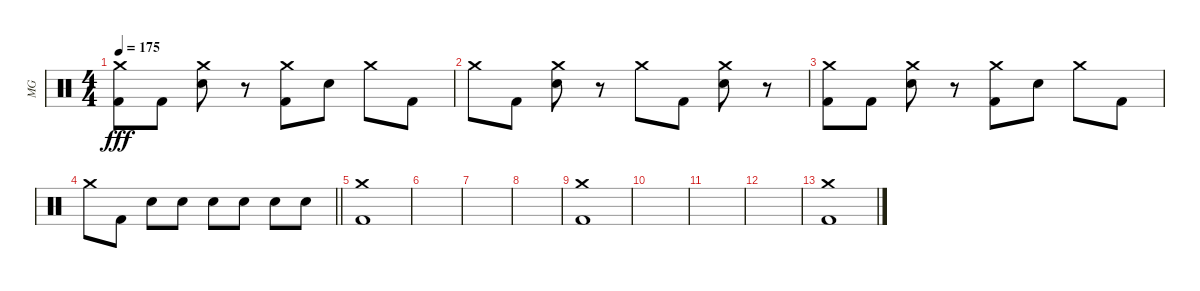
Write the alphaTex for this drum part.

\track ("MG" "MG") {instrument percussion}
\staff {score}
\articulation defaults
\ts (4 4)
\tempo 175
\clef neutral
\ks c
("Crash medium (hit)" "Kick (hit) 2").8{dy fff} "Kick (hit) 2".8 ("Crash medium (hit)" "Electric Snare (hit)").8 r.8 ("Crash medium (hit)" "Kick (hit) 2").8 "Electric Snare (hit)".8 "Crash medium (hit)".8 "Kick (hit) 2".8 |
"Crash medium (hit)".8 "Kick (hit) 2".8 ("Crash medium (hit)" "Electric Snare (hit)").8 r.8 "Crash medium (hit)".8 "Kick (hit) 2".8 ("Crash medium (hit)" "Electric Snare (hit)").8 r.8 |
("Crash medium (hit)" "Kick (hit) 2").8 "Kick (hit) 2".8 ("Crash medium (hit)" "Electric Snare (hit)").8 r.8 ("Crash medium (hit)" "Kick (hit) 2").8 "Electric Snare (hit)".8 "Crash medium (hit)".8 "Kick (hit) 2".8 |
\barLineRight lightlight "Crash medium (hit)".8 "Kick (hit) 2".8 "Electric Snare (hit)".8 "Electric Snare (hit)".8 "Electric Snare (hit)".8 "Electric Snare (hit)".8 "Electric Snare (hit)".8 "Electric Snare (hit)".8
|
\section ("" "")
("Crash medium (hit)" "Kick (hit) 2").1 |
|
|
|
("Crash medium (hit)" "Kick (hit) 2").1 |
|
|
|
("Crash medium (hit)" "Kick (hit) 2").1
